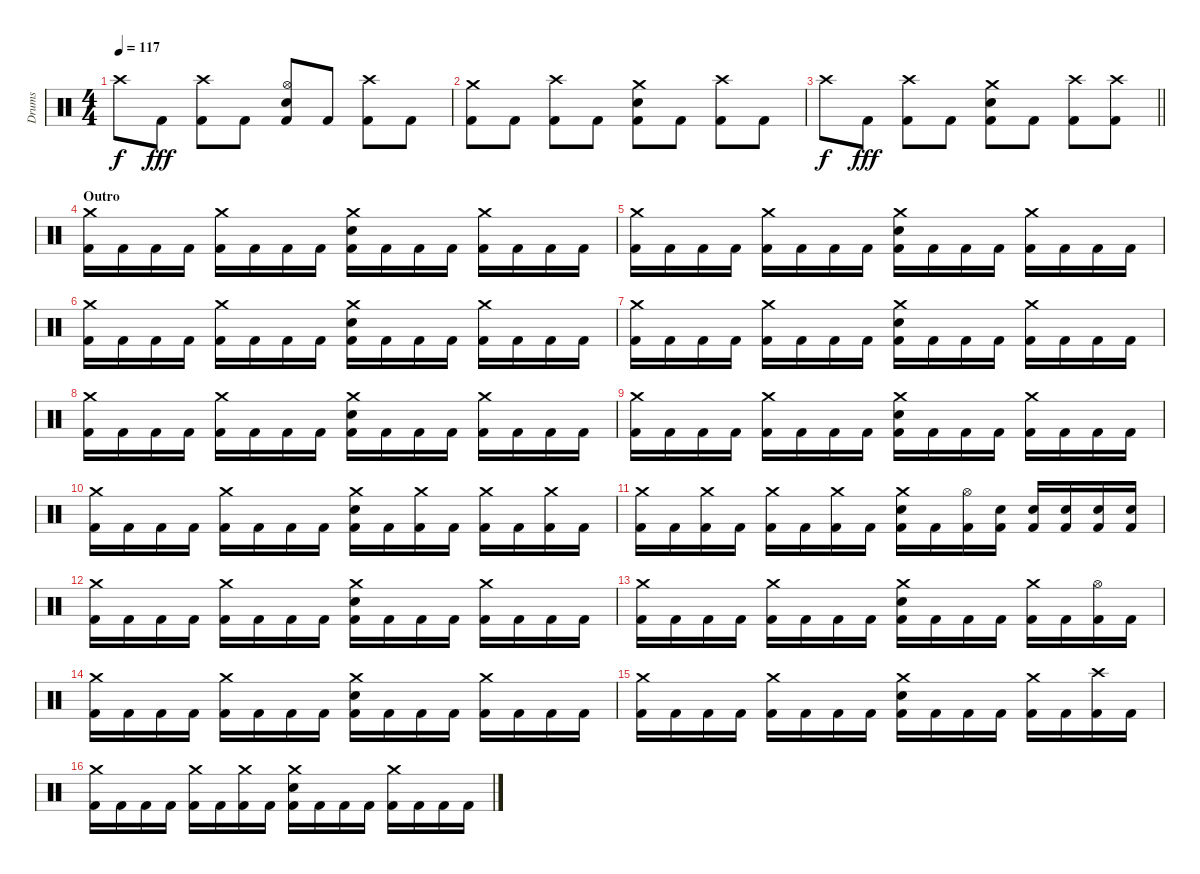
\track ("Drums" "Drums") {instrument percussion}
\staff {score}
\articulation defaults
\ts (4 4)
\tempo 117
\clef neutral
\ks c "Crash high (hit)".8{dy f} "Kick (hit) 2".8{dy fff}
("Crash high (hit)" "Kick (hit) 2").8 "Kick (hit) 2".8 ("Hi-Hat (open)" "Electric Snare (hit)" "Kick (hit) 2").8 "Kick (hit) 2".8 ("Crash high (hit)" "Kick (hit) 2").8 "Kick (hit) 2".8 |
("Crash medium (hit)" "Kick (hit) 2").8 "Kick (hit) 2".8 ("Crash high (hit)" "Kick (hit) 2").8 "Kick (hit) 2".8 ("Crash medium (hit)" "Electric Snare (hit)" "Kick (hit) 2").8 "Kick (hit) 2".8 ("Crash high (hit)" "Kick (hit) 2").8 "Kick (hit) 2".8 |
\barLineRight lightlight "Crash high (hit)".8{dy f} "Kick (hit) 2".8{dy fff}
("Crash high (hit)" "Kick (hit) 2").8 "Kick (hit) 2".8 ("Crash medium (hit)" "Electric Snare (hit)" "Kick (hit) 2").8 "Kick (hit) 2".8 ("Crash high (hit)" "Kick (hit) 2").8 ("Crash high (hit)" "Kick (hit) 2").8 |
\section ("" "Outro")
("Crash medium (hit)" "Kick (hit) 2").16 "Kick (hit) 2".16 "Kick (hit) 2".16 "Kick (hit) 2".16 ("Crash medium (hit)" "Kick (hit) 2").16 "Kick (hit) 2".16 "Kick (hit) 2".16 "Kick (hit) 2".16 ("Crash medium (hit)" "Electric Snare (hit)" "Kick (hit) 2").16 "Kick (hit) 2".16 "Kick (hit) 2".16 "Kick (hit) 2".16 ("Crash medium (hit)" "Kick (hit) 2").16 "Kick (hit) 2".16 "Kick (hit) 2".16 "Kick (hit) 2".16 |
("Crash medium (hit)" "Kick (hit) 2").16 "Kick (hit) 2".16 "Kick (hit) 2".16 "Kick (hit) 2".16 ("Crash medium (hit)" "Kick (hit) 2").16 "Kick (hit) 2".16 "Kick (hit) 2".16 "Kick (hit) 2".16 ("Crash medium (hit)" "Electric Snare (hit)" "Kick (hit) 2").16 "Kick (hit) 2".16 "Kick (hit) 2".16 "Kick (hit) 2".16 ("Crash medium (hit)" "Kick (hit) 2").16 "Kick (hit) 2".16 "Kick (hit) 2".16 "Kick (hit) 2".16 |
("Crash medium (hit)" "Kick (hit) 2").16 "Kick (hit) 2".16 "Kick (hit) 2".16 "Kick (hit) 2".16 ("Crash medium (hit)" "Kick (hit) 2").16 "Kick (hit) 2".16 "Kick (hit) 2".16 "Kick (hit) 2".16 ("Crash medium (hit)" "Electric Snare (hit)" "Kick (hit) 2").16 "Kick (hit) 2".16 "Kick (hit) 2".16 "Kick (hit) 2".16 ("Crash medium (hit)" "Kick (hit) 2").16 "Kick (hit) 2".16 "Kick (hit) 2".16 "Kick (hit) 2".16 |
("Crash medium (hit)" "Kick (hit) 2").16 "Kick (hit) 2".16 "Kick (hit) 2".16 "Kick (hit) 2".16 ("Crash medium (hit)" "Kick (hit) 2").16 "Kick (hit) 2".16 "Kick (hit) 2".16 "Kick (hit) 2".16 ("Crash medium (hit)" "Electric Snare (hit)" "Kick (hit) 2").16 "Kick (hit) 2".16 "Kick (hit) 2".16 "Kick (hit) 2".16 ("Crash medium (hit)" "Kick (hit) 2").16 "Kick (hit) 2".16 "Kick (hit) 2".16 "Kick (hit) 2".16 |
("Crash medium (hit)" "Kick (hit) 2").16 "Kick (hit) 2".16 "Kick (hit) 2".16 "Kick (hit) 2".16 ("Crash medium (hit)" "Kick (hit) 2").16 "Kick (hit) 2".16 "Kick (hit) 2".16 "Kick (hit) 2".16 ("Crash medium (hit)" "Electric Snare (hit)" "Kick (hit) 2").16 "Kick (hit) 2".16 "Kick (hit) 2".16 "Kick (hit) 2".16 ("Crash medium (hit)" "Kick (hit) 2").16 "Kick (hit) 2".16 "Kick (hit) 2".16 "Kick (hit) 2".16 |
("Crash medium (hit)" "Kick (hit) 2").16 "Kick (hit) 2".16 "Kick (hit) 2".16 "Kick (hit) 2".16 ("Crash medium (hit)" "Kick (hit) 2").16 "Kick (hit) 2".16 "Kick (hit) 2".16 "Kick (hit) 2".16 ("Crash medium (hit)" "Electric Snare (hit)" "Kick (hit) 2").16 "Kick (hit) 2".16 "Kick (hit) 2".16 "Kick (hit) 2".16 ("Crash medium (hit)" "Kick (hit) 2").16 "Kick (hit) 2".16 "Kick (hit) 2".16 "Kick (hit) 2".16 |
("Crash medium (hit)" "Kick (hit) 2").16 "Kick (hit) 2".16 "Kick (hit) 2".16 "Kick (hit) 2".16 ("Crash medium (hit)" "Kick (hit) 2").16 "Kick (hit) 2".16 "Kick (hit) 2".16 "Kick (hit) 2".16 ("Crash medium (hit)" "Electric Snare (hit)" "Kick (hit) 2").16 "Kick (hit) 2".16 ("Crash medium (hit)" "Kick (hit) 2").16 "Kick (hit) 2".16 ("Crash medium (hit)" "Kick (hit) 2").16 "Kick (hit) 2".16 ("Crash medium (hit)" "Kick (hit) 2").16 "Kick (hit) 2".16 |
("Crash medium (hit)" "Kick (hit) 2").16 "Kick (hit) 2".16 ("Crash medium (hit)" "Kick (hit) 2").16 "Kick (hit) 2".16 ("Crash medium (hit)" "Kick (hit) 2").16 "Kick (hit) 2".16 ("Crash medium (hit)" "Kick (hit) 2").16 "Kick (hit) 2".16 ("Crash medium (hit)" "Electric Snare (hit)" "Kick (hit) 2").16 "Kick (hit) 2".16 ("Hi-Hat (open)" "Kick (hit) 2").16 ("Electric Snare (hit)" "Kick (hit) 2").16 ("Electric Snare (hit)" "Kick (hit) 2").16 ("Electric Snare (hit)" "Kick (hit) 2").16 ("Electric Snare (hit)" "Kick (hit) 2").16 ("Electric Snare (hit)" "Kick (hit) 2").16 |
("Crash medium (hit)" "Kick (hit) 2").16 "Kick (hit) 2".16 "Kick (hit) 2".16 "Kick (hit) 2".16 ("Crash medium (hit)" "Kick (hit) 2").16 "Kick (hit) 2".16 "Kick (hit) 2".16 "Kick (hit) 2".16 ("Crash medium (hit)" "Electric Snare (hit)" "Kick (hit) 2").16 "Kick (hit) 2".16 "Kick (hit) 2".16 "Kick (hit) 2".16 ("Crash medium (hit)" "Kick (hit) 2").16 "Kick (hit) 2".16 "Kick (hit) 2".16 "Kick (hit) 2".16 |
("Crash medium (hit)" "Kick (hit) 2").16 "Kick (hit) 2".16 "Kick (hit) 2".16 "Kick (hit) 2".16 ("Crash medium (hit)" "Kick (hit) 2").16 "Kick (hit) 2".16 "Kick (hit) 2".16 "Kick (hit) 2".16 ("Crash medium (hit)" "Electric Snare (hit)" "Kick (hit) 2").16 "Kick (hit) 2".16 "Kick (hit) 2".16 "Kick (hit) 2".16 ("Crash medium (hit)" "Kick (hit) 2").16 "Kick (hit) 2".16 ("Hi-Hat (open)" "Kick (hit) 2").16 "Kick (hit) 2".16 |
("Crash medium (hit)" "Kick (hit) 2").16 "Kick (hit) 2".16 "Kick (hit) 2".16 "Kick (hit) 2".16 ("Crash medium (hit)" "Kick (hit) 2").16 "Kick (hit) 2".16 "Kick (hit) 2".16 "Kick (hit) 2".16 ("Crash medium (hit)" "Electric Snare (hit)" "Kick (hit) 2").16 "Kick (hit) 2".16 "Kick (hit) 2".16 "Kick (hit) 2".16 ("Crash medium (hit)" "Kick (hit) 2").16 "Kick (hit) 2".16 "Kick (hit) 2".16 "Kick (hit) 2".16 |
("Crash medium (hit)" "Kick (hit) 2").16 "Kick (hit) 2".16 "Kick (hit) 2".16 "Kick (hit) 2".16 ("Crash medium (hit)" "Kick (hit) 2").16 "Kick (hit) 2".16 "Kick (hit) 2".16 "Kick (hit) 2".16 ("Crash medium (hit)" "Electric Snare (hit)" "Kick (hit) 2").16 "Kick (hit) 2".16 "Kick (hit) 2".16 "Kick (hit) 2".16 ("Crash medium (hit)" "Kick (hit) 2").16 "Kick (hit) 2".16 ("Crash high (hit)" "Kick (hit) 2").16 "Kick (hit) 2".16 |
("Crash medium (hit)" "Kick (hit) 2").16 "Kick (hit) 2".16 "Kick (hit) 2".16 "Kick (hit) 2".16 ("Crash medium (hit)" "Kick (hit) 2").16 "Kick (hit) 2".16 ("Crash medium (hit)" "Kick (hit) 2").16 "Kick (hit) 2".16 ("Crash medium (hit)" "Electric Snare (hit)" "Kick (hit) 2").16 "Kick (hit) 2".16 "Kick (hit) 2".16 "Kick (hit) 2".16 ("Crash medium (hit)" "Kick (hit) 2").16 "Kick (hit) 2".16 "Kick (hit) 2".16 "Kick (hit) 2".16
